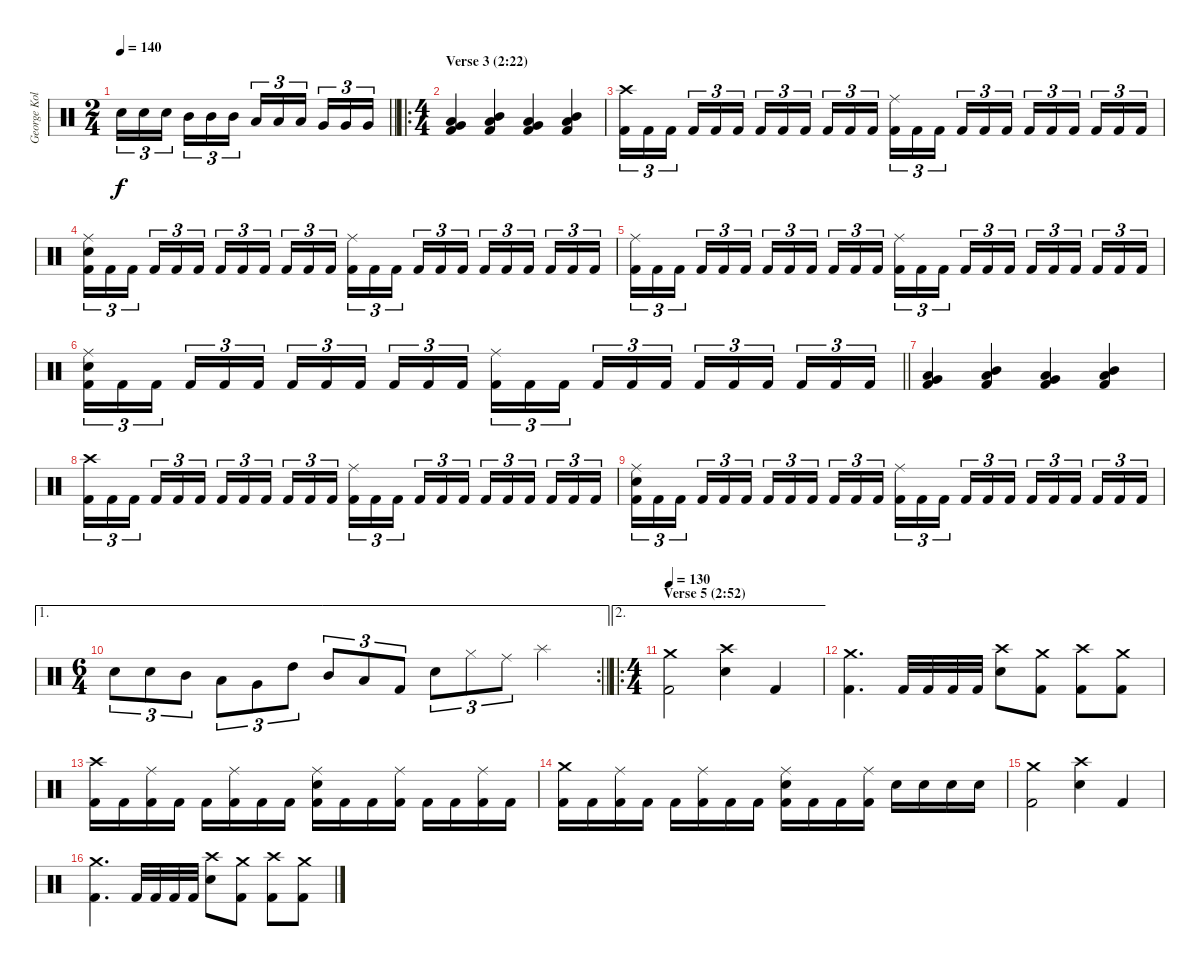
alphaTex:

\track ("George Kollias" "George Kol") {instrument percussion}
\staff {score}
\articulation defaults
\ts (2 4)
\tempo 140
\clef neutral
\barLineRight lightlight
\ks c "Electric Snare (hit)".16{tu (3 2) dy f} "Electric Snare (hit)".16{tu (3 2)} "Electric Snare (hit)".16{tu (3 2) beam splitsecondary} "Mid Tom (hit)".16{tu (3 2)} "Mid Tom (hit)".16{tu (3 2)} "Mid Tom (hit)".16{tu (3 2)} "Low Tom (hit)".16{tu (3 2)} "Low Tom (hit)".16{tu (3 2)} "Low Tom (hit)".16{tu (3 2) beam splitsecondary} "Very Low Tom (hit)".16{tu (3 2)} "Very Low Tom (hit)".16{tu (3 2)} "Very Low Tom (hit)".16{tu (3 2)}
|
\ro
\ts (4 4)
\section ("" "Verse 3 (2:22)")
("Very Low Tom (hit)" "Low Tom (hit)" "Kick (hit) 2").4 ("Mid Tom (hit)" "Low Tom (hit)" "Kick (hit) 2").4 ("Very Low Tom (hit)" "Low Tom (hit)" "Kick (hit) 2").4 ("Mid Tom (hit)" "Low Tom (hit)" "Kick (hit) 2").4 |
("Crash high (hit)" "Kick (hit) 2").16{tu (3 2)} "Kick (hit) 2".16{tu (3 2)} "Kick (hit) 2".16{tu (3 2) beam splitsecondary} "Kick (hit) 2".16{tu (3 2)} "Kick (hit) 2".16{tu (3 2)} "Kick (hit) 2".16{tu (3 2)} "Kick (hit) 2".16{tu (3 2)} "Kick (hit) 2".16{tu (3 2)} "Kick (hit) 2".16{tu (3 2) beam splitsecondary} "Kick (hit) 2".16{tu (3 2)} "Kick (hit) 2".16{tu (3 2)} "Kick (hit) 2".16{tu (3 2)} ("Ride (middle)" "Kick (hit) 2").16{tu (3 2)} "Kick (hit) 2".16{tu (3 2)} "Kick (hit) 2".16{tu (3 2) beam splitsecondary} "Kick (hit) 2".16{tu (3 2)} "Kick (hit) 2".16{tu (3 2)} "Kick (hit) 2".16{tu (3 2)} "Kick (hit) 2".16{tu (3 2)} "Kick (hit) 2".16{tu (3 2)} "Kick (hit) 2".16{tu (3 2) beam splitsecondary} "Kick (hit) 2".16{tu (3 2)} "Kick (hit) 2".16{tu (3 2)} "Kick (hit) 2".16{tu (3 2)} |
("Ride (middle)" "Electric Snare (hit)" "Kick (hit) 2").16{tu (3 2)} "Kick (hit) 2".16{tu (3 2)} "Kick (hit) 2".16{tu (3 2) beam splitsecondary} "Kick (hit) 2".16{tu (3 2)} "Kick (hit) 2".16{tu (3 2)} "Kick (hit) 2".16{tu (3 2)} "Kick (hit) 2".16{tu (3 2)} "Kick (hit) 2".16{tu (3 2)} "Kick (hit) 2".16{tu (3 2) beam splitsecondary} "Kick (hit) 2".16{tu (3 2)} "Kick (hit) 2".16{tu (3 2)} "Kick (hit) 2".16{tu (3 2)} ("Ride (middle)" "Kick (hit) 2").16{tu (3 2)} "Kick (hit) 2".16{tu (3 2)} "Kick (hit) 2".16{tu (3 2) beam splitsecondary} "Kick (hit) 2".16{tu (3 2)} "Kick (hit) 2".16{tu (3 2)} "Kick (hit) 2".16{tu (3 2)} "Kick (hit) 2".16{tu (3 2)} "Kick (hit) 2".16{tu (3 2)} "Kick (hit) 2".16{tu (3 2) beam splitsecondary} "Kick (hit) 2".16{tu (3 2)} "Kick (hit) 2".16{tu (3 2)} "Kick (hit) 2".16{tu (3 2)} |
("Ride (middle)" "Kick (hit) 2").16{tu (3 2)} "Kick (hit) 2".16{tu (3 2)} "Kick (hit) 2".16{tu (3 2) beam splitsecondary} "Kick (hit) 2".16{tu (3 2)} "Kick (hit) 2".16{tu (3 2)} "Kick (hit) 2".16{tu (3 2)} "Kick (hit) 2".16{tu (3 2)} "Kick (hit) 2".16{tu (3 2)} "Kick (hit) 2".16{tu (3 2) beam splitsecondary} "Kick (hit) 2".16{tu (3 2)} "Kick (hit) 2".16{tu (3 2)} "Kick (hit) 2".16{tu (3 2)} ("Ride (middle)" "Kick (hit) 2").16{tu (3 2)} "Kick (hit) 2".16{tu (3 2)} "Kick (hit) 2".16{tu (3 2) beam splitsecondary} "Kick (hit) 2".16{tu (3 2)} "Kick (hit) 2".16{tu (3 2)} "Kick (hit) 2".16{tu (3 2)} "Kick (hit) 2".16{tu (3 2)} "Kick (hit) 2".16{tu (3 2)} "Kick (hit) 2".16{tu (3 2) beam splitsecondary} "Kick (hit) 2".16{tu (3 2)} "Kick (hit) 2".16{tu (3 2)} "Kick (hit) 2".16{tu (3 2)} |
\barLineRight lightlight
("Ride (middle)" "Electric Snare (hit)" "Kick (hit) 2").16{tu (3 2)} "Kick (hit) 2".16{tu (3 2)} "Kick (hit) 2".16{tu (3 2) beam splitsecondary} "Kick (hit) 2".16{tu (3 2)} "Kick (hit) 2".16{tu (3 2)} "Kick (hit) 2".16{tu (3 2)} "Kick (hit) 2".16{tu (3 2)} "Kick (hit) 2".16{tu (3 2)} "Kick (hit) 2".16{tu (3 2) beam splitsecondary} "Kick (hit) 2".16{tu (3 2)} "Kick (hit) 2".16{tu (3 2)} "Kick (hit) 2".16{tu (3 2)} ("Ride (middle)" "Kick (hit) 2").16{tu (3 2)} "Kick (hit) 2".16{tu (3 2)} "Kick (hit) 2".16{tu (3 2) beam splitsecondary} "Kick (hit) 2".16{tu (3 2)} "Kick (hit) 2".16{tu (3 2)} "Kick (hit) 2".16{tu (3 2)} "Kick (hit) 2".16{tu (3 2)} "Kick (hit) 2".16{tu (3 2)} "Kick (hit) 2".16{tu (3 2) beam splitsecondary} "Kick (hit) 2".16{tu (3 2)} "Kick (hit) 2".16{tu (3 2)} "Kick (hit) 2".16{tu (3 2)} |
("Very Low Tom (hit)" "Low Tom (hit)" "Kick (hit) 2").4 ("Mid Tom (hit)" "Low Tom (hit)" "Kick (hit) 2").4 ("Very Low Tom (hit)" "Low Tom (hit)" "Kick (hit) 2").4 ("Mid Tom (hit)" "Low Tom (hit)" "Kick (hit) 2").4 |
("Crash high (hit)" "Kick (hit) 2").16{tu (3 2)} "Kick (hit) 2".16{tu (3 2)} "Kick (hit) 2".16{tu (3 2) beam splitsecondary} "Kick (hit) 2".16{tu (3 2)} "Kick (hit) 2".16{tu (3 2)} "Kick (hit) 2".16{tu (3 2)} "Kick (hit) 2".16{tu (3 2)} "Kick (hit) 2".16{tu (3 2)} "Kick (hit) 2".16{tu (3 2) beam splitsecondary} "Kick (hit) 2".16{tu (3 2)} "Kick (hit) 2".16{tu (3 2)} "Kick (hit) 2".16{tu (3 2)} ("Ride (middle)" "Kick (hit) 2").16{tu (3 2)} "Kick (hit) 2".16{tu (3 2)} "Kick (hit) 2".16{tu (3 2) beam splitsecondary} "Kick (hit) 2".16{tu (3 2)} "Kick (hit) 2".16{tu (3 2)} "Kick (hit) 2".16{tu (3 2)} "Kick (hit) 2".16{tu (3 2)} "Kick (hit) 2".16{tu (3 2)} "Kick (hit) 2".16{tu (3 2) beam splitsecondary} "Kick (hit) 2".16{tu (3 2)} "Kick (hit) 2".16{tu (3 2)} "Kick (hit) 2".16{tu (3 2)} |
("Ride (middle)" "Electric Snare (hit)" "Kick (hit) 2").16{tu (3 2)} "Kick (hit) 2".16{tu (3 2)} "Kick (hit) 2".16{tu (3 2) beam splitsecondary} "Kick (hit) 2".16{tu (3 2)} "Kick (hit) 2".16{tu (3 2)} "Kick (hit) 2".16{tu (3 2)} "Kick (hit) 2".16{tu (3 2)} "Kick (hit) 2".16{tu (3 2)} "Kick (hit) 2".16{tu (3 2) beam splitsecondary} "Kick (hit) 2".16{tu (3 2)} "Kick (hit) 2".16{tu (3 2)} "Kick (hit) 2".16{tu (3 2)} ("Ride (middle)" "Kick (hit) 2").16{tu (3 2)} "Kick (hit) 2".16{tu (3 2)} "Kick (hit) 2".16{tu (3 2) beam splitsecondary} "Kick (hit) 2".16{tu (3 2)} "Kick (hit) 2".16{tu (3 2)} "Kick (hit) 2".16{tu (3 2)} "Kick (hit) 2".16{tu (3 2)} "Kick (hit) 2".16{tu (3 2)} "Kick (hit) 2".16{tu (3 2) beam splitsecondary} "Kick (hit) 2".16{tu (3 2)} "Kick (hit) 2".16{tu (3 2)} "Kick (hit) 2".16{tu (3 2)} |
\ae 1
\rc 2
\ts (6 4)
\barLineRight lightlight "Electric Snare (hit)".8{tu (3 2)} "Electric Snare (hit)".8{tu (3 2)} "Mid Tom (hit)".8{tu (3 2)} "Low Tom (hit)".8{tu (3 2)} "Very Low Tom (hit)".8{tu (3 2)} "High Tom (hit)".8{tu (3 2)} "Mid Tom (hit)".8{tu (3 2)} "Low Tom (hit)".8{tu (3 2)} "Kick (hit) 2".8{tu (3 2)} "Electric Snare (hit)".8{tu (3 2)} "Hi-Hat (closed)".8{tu (3 2)} "Ride (middle)".8{tu (3 2)} "Splash (hit)".2
|
\ae 2
\ro
\ts (4 4)
\section ("" "Verse 5 (2:52)")
\tempo 130
("Crash medium (hit)" "Kick (hit) 2").2 ("Crash high (hit)" "Electric Snare (hit)").4 "Kick (hit) 2".4 |
("Crash medium (hit)" "Kick (hit) 2").4{d} "Kick (hit) 2".32 "Kick (hit) 2".32 "Kick (hit) 2".32 "Kick (hit) 2".32 ("Crash high (hit)" "Electric Snare (hit)").8 ("Crash medium (hit)" "Kick (hit) 2").8 ("Crash high (hit)" "Kick (hit) 2").8 ("Crash medium (hit)" "Kick (hit) 2").8 |
("Crash high (hit)" "Kick (hit) 2").16 "Kick (hit) 2".16 ("Ride (middle)" "Kick (hit) 2").16 "Kick (hit) 2".16 "Kick (hit) 2".16 ("Ride (middle)" "Kick (hit) 2").16 "Kick (hit) 2".16 "Kick (hit) 2".16 ("Ride (middle)" "Electric Snare (hit)" "Kick (hit) 2").16 "Kick (hit) 2".16 "Kick (hit) 2".16 ("Ride (middle)" "Kick (hit) 2").16 "Kick (hit) 2".16 "Kick (hit) 2".16 ("Ride (middle)" "Kick (hit) 2").16 "Kick (hit) 2".16 |
("Crash medium (hit)" "Kick (hit) 2").16 "Kick (hit) 2".16 ("Ride (middle)" "Kick (hit) 2").16 "Kick (hit) 2".16 "Kick (hit) 2".16 ("Ride (middle)" "Kick (hit) 2").16 "Kick (hit) 2".16 "Kick (hit) 2".16 ("Ride (middle)" "Electric Snare (hit)" "Kick (hit) 2").16 "Kick (hit) 2".16 "Kick (hit) 2".16 ("Ride (middle)" "Kick (hit) 2").16 "Electric Snare (hit)".16 "Electric Snare (hit)".16 "Electric Snare (hit)".16 "Electric Snare (hit)".16 |
("Crash medium (hit)" "Kick (hit) 2").2 ("Crash high (hit)" "Electric Snare (hit)").4 "Kick (hit) 2".4 |
("Crash medium (hit)" "Kick (hit) 2").4{d} "Kick (hit) 2".32 "Kick (hit) 2".32 "Kick (hit) 2".32 "Kick (hit) 2".32 ("Crash high (hit)" "Electric Snare (hit)").8 ("Crash medium (hit)" "Kick (hit) 2").8 ("Crash high (hit)" "Kick (hit) 2").8 ("Crash medium (hit)" "Kick (hit) 2").8
